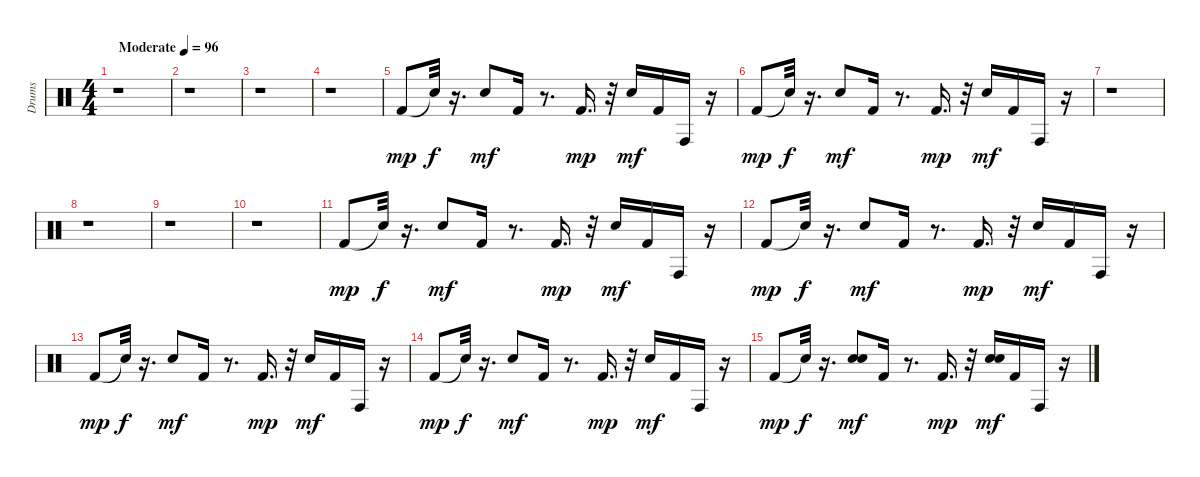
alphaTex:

\track ("Drums" "Drums") {instrument percussion}
\staff {score}
\articulation defaults
\ts (4 4)
\tempo (96 "Moderate")
\clef neutral
\ks c
r.1{dy mp} |
r.1 |
r.1 |
r.1 |
"Kick (hit) 2".8 "Snare (hit)"{t}.32{dy f} r.16{d} "Snare (hit) 2".8{dy mf} "Kick (hit) 2".16 r.8{d} "Kick (hit) 2".16{d dy mp} r.32 "Snare (hit) 2".16{dy mf} "Kick (hit) 2".16 "Conga high (hit)".16 r.16 |
"Kick (hit) 2".8{dy mp} "Snare (hit)"{t}.32{dy f} r.16{d} "Snare (hit) 2".8{dy mf} "Kick (hit) 2".16 r.8{d} "Kick (hit) 2".16{d dy mp} r.32 "Snare (hit) 2".16{dy mf} "Kick (hit) 2".16 "Conga high (hit)".16 r.16 |
r.1 |
r.1 |
r.1 |
r.1 |
"Kick (hit) 2".8{dy mp} "Snare (hit)"{t}.32{dy f} r.16{d} "Snare (hit) 2".8{dy mf} "Kick (hit) 2".16 r.8{d} "Kick (hit) 2".16{d dy mp} r.32 "Snare (hit) 2".16{dy mf} "Kick (hit) 2".16 "Conga high (hit)".16 r.16 |
"Kick (hit) 2".8{dy mp} "Snare (hit)"{t}.32{dy f} r.16{d} "Snare (hit) 2".8{dy mf} "Kick (hit) 2".16 r.8{d} "Kick (hit) 2".16{d dy mp} r.32 "Snare (hit) 2".16{dy mf} "Kick (hit) 2".16 "Conga high (hit)".16 r.16 |
"Kick (hit) 2".8{dy mp} "Snare (hit)"{t}.32{dy f} r.16{d} "Snare (hit) 2".8{dy mf} "Kick (hit) 2".16 r.8{d} "Kick (hit) 2".16{d dy mp} r.32 "Snare (hit) 2".16{dy mf} "Kick (hit) 2".16 "Conga high (hit)".16 r.16 |
"Kick (hit) 2".8{dy mp} "Snare (hit)"{t}.32{dy f} r.16{d} "Snare (hit) 2".8{dy mf} "Kick (hit) 2".16 r.8{d} "Kick (hit) 2".16{d dy mp} r.32 "Snare (hit) 2".16{dy mf} "Kick (hit) 2".16 "Conga high (hit)".16 r.16 |
"Kick (hit) 2".8{dy mp} "Snare (hit)"{t}.32{dy f} r.16{d} ("Snare (hit) 2" "Hand Clap (hit)").8{dy mf} "Kick (hit) 2".16 r.8{d} "Kick (hit) 2".16{d dy mp} r.32 ("Snare (hit) 2" "Hand Clap (hit)").16{dy mf} "Kick (hit) 2".16 "Conga high (hit)".16 r.16
